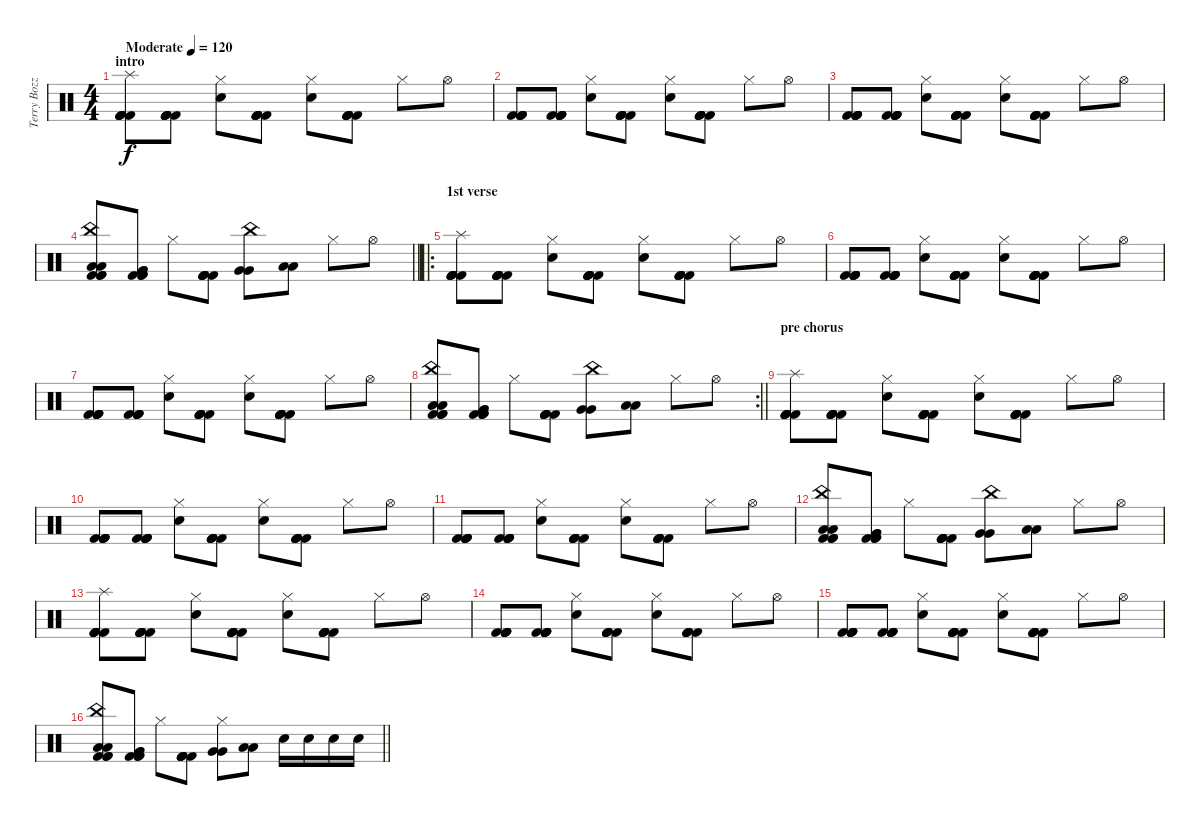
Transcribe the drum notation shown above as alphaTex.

\track ("Terry Bozzio" "Terry Bozz") {instrument percussion}
\staff {score}
\articulation defaults
\ts (4 4)
\section ("" "intro")
\tempo (120 "Moderate")
\clef neutral
\ks c
("Splash (hit)" "Kick (hit) 2" "Kick (hit) 2" "Kick (hit) 2" "Kick (hit) 2" "Kick (hit) 2").8{dy f} ("Kick (hit) 2" "Kick (hit) 2" "Kick (hit) 2" "Kick (hit) 2" "Kick (hit) 2").8 ("Hi-Hat (closed)" "Snare (hit) 2").8 ("Kick (hit) 2" "Kick (hit) 2" "Kick (hit) 2" "Kick (hit) 2" "Kick (hit) 2").8 ("Hi-Hat (closed)" "Snare (hit) 2").8 ("Kick (hit) 2" "Kick (hit) 2" "Kick (hit) 2" "Kick (hit) 2" "Kick (hit) 2").8 "Hi-Hat (closed)".8 "Hi-Hat (open)".8 |
("Kick (hit) 2" "Kick (hit) 2" "Kick (hit) 2" "Kick (hit) 2" "Kick (hit) 2").8 ("Kick (hit) 2" "Kick (hit) 2" "Kick (hit) 2" "Kick (hit) 2" "Kick (hit) 2").8 ("Hi-Hat (closed)" "Snare (hit) 2").8 ("Kick (hit) 2" "Kick (hit) 2" "Kick (hit) 2" "Kick (hit) 2" "Kick (hit) 2").8 ("Hi-Hat (closed)" "Snare (hit) 2").8 ("Kick (hit) 2" "Kick (hit) 2" "Kick (hit) 2" "Kick (hit) 2" "Kick (hit) 2").8 "Hi-Hat (closed)".8 "Hi-Hat (open)".8 |
("Kick (hit) 2" "Kick (hit) 2" "Kick (hit) 2" "Kick (hit) 2" "Kick (hit) 2").8 ("Kick (hit) 2" "Kick (hit) 2" "Kick (hit) 2" "Kick (hit) 2" "Kick (hit) 2").8 ("Hi-Hat (closed)" "Snare (hit) 2").8 ("Kick (hit) 2" "Kick (hit) 2" "Kick (hit) 2" "Kick (hit) 2" "Kick (hit) 2").8 ("Hi-Hat (closed)" "Snare (hit) 2").8 ("Kick (hit) 2" "Kick (hit) 2" "Kick (hit) 2" "Kick (hit) 2" "Kick (hit) 2").8 "Hi-Hat (closed)".8 "Hi-Hat (open)".8 |
\barLineRight lightlight
("China (hit)" "Low Tom (hit)" "Low Tom (hit)" "Kick (hit) 2" "Kick (hit) 2" "Kick (hit) 2").8 ("Very Low Tom (hit)" "Very Low Tom (hit)" "Kick (hit) 2" "Kick (hit) 2" "Kick (hit) 2").8 "Hi-Hat (closed)".8 ("Kick (hit) 2" "Kick (hit) 2" "Kick (hit) 2" "Kick (hit) 2" "Kick (hit) 2").8 ("China (hit)" "Very Low Tom (hit)" "Very Low Tom (hit)").8 ("Low Floor Tom (hit)" "Low Floor Tom (hit)").8 "Hi-Hat (closed)".8 "Hi-Hat (open)".8 |
\ro
\section ("" "1st verse")
("Splash (hit)" "Kick (hit) 2" "Kick (hit) 2" "Kick (hit) 2" "Kick (hit) 2" "Kick (hit) 2").8 ("Kick (hit) 2" "Kick (hit) 2" "Kick (hit) 2" "Kick (hit) 2" "Kick (hit) 2").8 ("Hi-Hat (closed)" "Snare (hit) 2").8 ("Kick (hit) 2" "Kick (hit) 2" "Kick (hit) 2" "Kick (hit) 2" "Kick (hit) 2").8 ("Hi-Hat (closed)" "Snare (hit) 2").8 ("Kick (hit) 2" "Kick (hit) 2" "Kick (hit) 2" "Kick (hit) 2" "Kick (hit) 2").8 "Hi-Hat (closed)".8 "Hi-Hat (open)".8 |
("Kick (hit) 2" "Kick (hit) 2" "Kick (hit) 2" "Kick (hit) 2" "Kick (hit) 2").8 ("Kick (hit) 2" "Kick (hit) 2" "Kick (hit) 2" "Kick (hit) 2" "Kick (hit) 2").8 ("Hi-Hat (closed)" "Snare (hit) 2").8 ("Kick (hit) 2" "Kick (hit) 2" "Kick (hit) 2" "Kick (hit) 2" "Kick (hit) 2").8 ("Hi-Hat (closed)" "Snare (hit) 2").8 ("Kick (hit) 2" "Kick (hit) 2" "Kick (hit) 2" "Kick (hit) 2" "Kick (hit) 2").8 "Hi-Hat (closed)".8 "Hi-Hat (open)".8 |
("Kick (hit) 2" "Kick (hit) 2" "Kick (hit) 2" "Kick (hit) 2" "Kick (hit) 2").8 ("Kick (hit) 2" "Kick (hit) 2" "Kick (hit) 2" "Kick (hit) 2" "Kick (hit) 2").8 ("Hi-Hat (closed)" "Snare (hit) 2").8 ("Kick (hit) 2" "Kick (hit) 2" "Kick (hit) 2" "Kick (hit) 2" "Kick (hit) 2").8 ("Hi-Hat (closed)" "Snare (hit) 2").8 ("Kick (hit) 2" "Kick (hit) 2" "Kick (hit) 2" "Kick (hit) 2" "Kick (hit) 2").8 "Hi-Hat (closed)".8 "Hi-Hat (open)".8 |
\rc 2
\barLineRight lightlight
("China (hit)" "Low Tom (hit)" "Low Tom (hit)" "Kick (hit) 2" "Kick (hit) 2" "Kick (hit) 2").8 ("Very Low Tom (hit)" "Very Low Tom (hit)" "Kick (hit) 2" "Kick (hit) 2" "Kick (hit) 2").8 "Hi-Hat (closed)".8 ("Kick (hit) 2" "Kick (hit) 2" "Kick (hit) 2" "Kick (hit) 2" "Kick (hit) 2").8 ("China (hit)" "Very Low Tom (hit)" "Very Low Tom (hit)").8 ("Low Floor Tom (hit)" "Low Floor Tom (hit)").8 "Hi-Hat (closed)".8 "Hi-Hat (open)".8 |
\section ("" "pre chorus")
("Splash (hit)" "Kick (hit) 2" "Kick (hit) 2" "Kick (hit) 2" "Kick (hit) 2" "Kick (hit) 2").8 ("Kick (hit) 2" "Kick (hit) 2" "Kick (hit) 2" "Kick (hit) 2" "Kick (hit) 2").8 ("Hi-Hat (closed)" "Snare (hit) 2").8 ("Kick (hit) 2" "Kick (hit) 2" "Kick (hit) 2" "Kick (hit) 2" "Kick (hit) 2").8 ("Hi-Hat (closed)" "Snare (hit) 2").8 ("Kick (hit) 2" "Kick (hit) 2" "Kick (hit) 2" "Kick (hit) 2" "Kick (hit) 2").8 "Hi-Hat (closed)".8 "Hi-Hat (open)".8 |
("Kick (hit) 2" "Kick (hit) 2" "Kick (hit) 2" "Kick (hit) 2" "Kick (hit) 2").8 ("Kick (hit) 2" "Kick (hit) 2" "Kick (hit) 2" "Kick (hit) 2" "Kick (hit) 2").8 ("Hi-Hat (closed)" "Snare (hit) 2").8 ("Kick (hit) 2" "Kick (hit) 2" "Kick (hit) 2" "Kick (hit) 2" "Kick (hit) 2").8 ("Hi-Hat (closed)" "Snare (hit) 2").8 ("Kick (hit) 2" "Kick (hit) 2" "Kick (hit) 2" "Kick (hit) 2" "Kick (hit) 2").8 "Hi-Hat (closed)".8 "Hi-Hat (open)".8 |
("Kick (hit) 2" "Kick (hit) 2" "Kick (hit) 2" "Kick (hit) 2" "Kick (hit) 2").8 ("Kick (hit) 2" "Kick (hit) 2" "Kick (hit) 2" "Kick (hit) 2" "Kick (hit) 2").8 ("Hi-Hat (closed)" "Snare (hit) 2").8 ("Kick (hit) 2" "Kick (hit) 2" "Kick (hit) 2" "Kick (hit) 2" "Kick (hit) 2").8 ("Hi-Hat (closed)" "Snare (hit) 2").8 ("Kick (hit) 2" "Kick (hit) 2" "Kick (hit) 2" "Kick (hit) 2" "Kick (hit) 2").8 "Hi-Hat (closed)".8 "Hi-Hat (open)".8 |
("China (hit)" "Low Tom (hit)" "Low Tom (hit)" "Kick (hit) 2" "Kick (hit) 2" "Kick (hit) 2").8 ("Very Low Tom (hit)" "Very Low Tom (hit)" "Kick (hit) 2" "Kick (hit) 2" "Kick (hit) 2").8 "Hi-Hat (closed)".8 ("Kick (hit) 2" "Kick (hit) 2" "Kick (hit) 2" "Kick (hit) 2" "Kick (hit) 2").8 ("China (hit)" "Very Low Tom (hit)" "Very Low Tom (hit)").8 ("Low Floor Tom (hit)" "Low Floor Tom (hit)").8 "Hi-Hat (closed)".8 "Hi-Hat (open)".8 |
("Splash (hit)" "Kick (hit) 2" "Kick (hit) 2" "Kick (hit) 2" "Kick (hit) 2" "Kick (hit) 2").8 ("Kick (hit) 2" "Kick (hit) 2" "Kick (hit) 2" "Kick (hit) 2" "Kick (hit) 2").8 ("Hi-Hat (closed)" "Snare (hit) 2").8 ("Kick (hit) 2" "Kick (hit) 2" "Kick (hit) 2" "Kick (hit) 2" "Kick (hit) 2").8 ("Hi-Hat (closed)" "Snare (hit) 2").8 ("Kick (hit) 2" "Kick (hit) 2" "Kick (hit) 2" "Kick (hit) 2" "Kick (hit) 2").8 "Hi-Hat (closed)".8 "Hi-Hat (open)".8 |
("Kick (hit) 2" "Kick (hit) 2" "Kick (hit) 2" "Kick (hit) 2" "Kick (hit) 2").8 ("Kick (hit) 2" "Kick (hit) 2" "Kick (hit) 2" "Kick (hit) 2" "Kick (hit) 2").8 ("Hi-Hat (closed)" "Snare (hit) 2").8 ("Kick (hit) 2" "Kick (hit) 2" "Kick (hit) 2" "Kick (hit) 2" "Kick (hit) 2").8 ("Hi-Hat (closed)" "Snare (hit) 2").8 ("Kick (hit) 2" "Kick (hit) 2" "Kick (hit) 2" "Kick (hit) 2" "Kick (hit) 2").8 "Hi-Hat (closed)".8 "Hi-Hat (open)".8 |
("Kick (hit) 2" "Kick (hit) 2" "Kick (hit) 2" "Kick (hit) 2" "Kick (hit) 2").8 ("Kick (hit) 2" "Kick (hit) 2" "Kick (hit) 2" "Kick (hit) 2" "Kick (hit) 2").8 ("Hi-Hat (closed)" "Snare (hit) 2").8 ("Kick (hit) 2" "Kick (hit) 2" "Kick (hit) 2" "Kick (hit) 2" "Kick (hit) 2").8 ("Hi-Hat (closed)" "Snare (hit) 2").8 ("Kick (hit) 2" "Kick (hit) 2" "Kick (hit) 2" "Kick (hit) 2" "Kick (hit) 2").8 "Hi-Hat (closed)".8 "Hi-Hat (open)".8 |
\barLineRight lightlight
("China (hit)" "Low Tom (hit)" "Low Tom (hit)" "Kick (hit) 2" "Kick (hit) 2" "Kick (hit) 2").8 ("Very Low Tom (hit)" "Very Low Tom (hit)" "Kick (hit) 2" "Kick (hit) 2" "Kick (hit) 2").8 "Hi-Hat (closed)".8 ("Kick (hit) 2" "Kick (hit) 2" "Kick (hit) 2" "Kick (hit) 2" "Kick (hit) 2").8 ("Hi-Hat (closed)" "Very Low Tom (hit)" "Very Low Tom (hit)").8 ("Low Floor Tom (hit)" "Low Floor Tom (hit)").8 "Snare (hit) 2".16 "Snare (hit) 2".16 "Snare (hit) 2".16 "Snare (hit) 2".16
